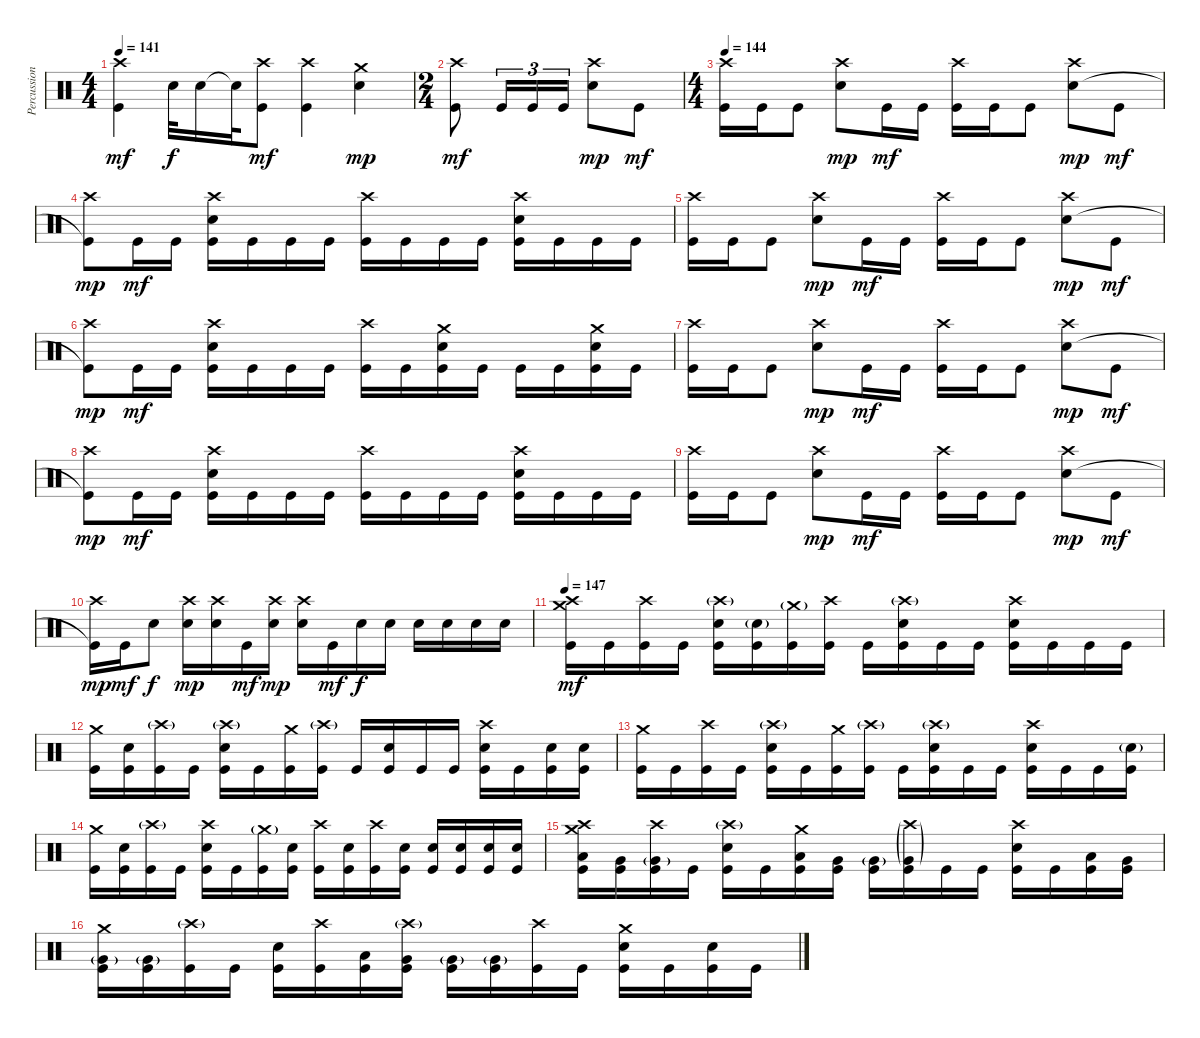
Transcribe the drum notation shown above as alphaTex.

\track ("Percussion" "Percussion") {instrument percussion}
\staff {score}
\articulation defaults
\ts (4 4)
\tempo 141
\clef neutral
\ks c
("Crash high (hit)" "Kick (hit)").4{dy mf} "Electric Snare (hit)".32{dy f} "Electric Snare (hit)".16 "Snare (hit)"{t}.32 ("Crash high (hit)" "Kick (hit)").8{dy mf} ("Crash high (hit)" "Kick (hit)").4 ("Crash medium (hit)" "Electric Snare (hit)").4{dy mp} |
\ts (2 4)
("Crash high (hit)" "Kick (hit)").8{dy mf} "Kick (hit)".16{tu (3 2)} "Kick (hit)".16{tu (3 2)} "Kick (hit)".16{tu (3 2)} ("Crash high (hit)" "Electric Snare (hit)").8{dy mp} "Kick (hit)".8{dy mf} |
\ts (4 4)
\tempo 144
("Crash high (hit)" "Kick (hit)").16 "Kick (hit)".16 "Kick (hit)".8 ("Crash high (hit)" "Electric Snare (hit)").8{dy mp} "Kick (hit)".16{dy mf} "Kick (hit)".16 ("Crash high (hit)" "Kick (hit)").16 "Kick (hit)".16 "Kick (hit)".8 ("Crash high (hit)" "Electric Snare (hit)").8{dy mp} "Kick (hit)".8{dy mf} |
("Crash high (hit)" "Kick (hit)"{t}).8{dy mp} "Kick (hit)".16{dy mf} "Kick (hit)".16 ("Crash high (hit)" "Electric Snare (hit)" "Kick (hit)").16 "Kick (hit)".16 "Kick (hit)".16 "Kick (hit)".16 ("Crash high (hit)" "Kick (hit)").16 "Kick (hit)".16 "Kick (hit)".16 "Kick (hit)".16 ("Crash high (hit)" "Electric Snare (hit)" "Kick (hit)").16 "Kick (hit)".16 "Kick (hit)".16 "Kick (hit)".16 |
("Crash high (hit)" "Kick (hit)").16 "Kick (hit)".16 "Kick (hit)".8 ("Crash high (hit)" "Electric Snare (hit)").8{dy mp} "Kick (hit)".16{dy mf} "Kick (hit)".16 ("Crash high (hit)" "Kick (hit)").16 "Kick (hit)".16 "Kick (hit)".8 ("Crash high (hit)" "Electric Snare (hit)").8{dy mp} "Kick (hit)".8{dy mf} |
("Crash high (hit)" "Kick (hit)"{t}).8{dy mp} "Kick (hit)".16{dy mf} "Kick (hit)".16 ("Crash high (hit)" "Electric Snare (hit)" "Kick (hit)").16 "Kick (hit)".16 "Kick (hit)".16 "Kick (hit)".16 ("Crash high (hit)" "Kick (hit)").16 "Kick (hit)".16 ("Crash medium (hit)" "Electric Snare (hit)" "Kick (hit)").16 "Kick (hit)".16 "Kick (hit)".16 "Kick (hit)".16 ("Crash medium (hit)" "Electric Snare (hit)" "Kick (hit)").16 "Kick (hit)".16 |
("Crash high (hit)" "Kick (hit)").16 "Kick (hit)".16 "Kick (hit)".8 ("Crash high (hit)" "Electric Snare (hit)").8{dy mp} "Kick (hit)".16{dy mf} "Kick (hit)".16 ("Crash high (hit)" "Kick (hit)").16 "Kick (hit)".16 "Kick (hit)".8 ("Crash high (hit)" "Electric Snare (hit)").8{dy mp} "Kick (hit)".8{dy mf} |
("Crash high (hit)" "Kick (hit)"{t}).8{dy mp} "Kick (hit)".16{dy mf} "Kick (hit)".16 ("Crash high (hit)" "Electric Snare (hit)" "Kick (hit)").16 "Kick (hit)".16 "Kick (hit)".16 "Kick (hit)".16 ("Crash high (hit)" "Kick (hit)").16 "Kick (hit)".16 "Kick (hit)".16 "Kick (hit)".16 ("Crash high (hit)" "Electric Snare (hit)" "Kick (hit)").16 "Kick (hit)".16 "Kick (hit)".16 "Kick (hit)".16 |
("Crash high (hit)" "Kick (hit)").16 "Kick (hit)".16 "Kick (hit)".8 ("Crash high (hit)" "Electric Snare (hit)").8{dy mp} "Kick (hit)".16{dy mf} "Kick (hit)".16 ("Crash high (hit)" "Kick (hit)").16 "Kick (hit)".16 "Kick (hit)".8 ("Crash high (hit)" "Electric Snare (hit)").8{dy mp} "Kick (hit)".8{dy mf} |
("Crash high (hit)" "Kick (hit)"{t}).16{dy mp} "Kick (hit)".16{dy mf} "Electric Snare (hit)".8{dy f} ("Crash high (hit)" "Electric Snare (hit)").16{dy mp} ("Crash high (hit)" "Electric Snare (hit)").16 "Kick (hit)".16{dy mf} ("Crash high (hit)" "Electric Snare (hit)").16{dy mp} ("Crash high (hit)" "Electric Snare (hit)").16 "Kick (hit)".16{dy mf} "Electric Snare (hit)".16{dy f} "Electric Snare (hit)".16 "Electric Snare (hit)".16 "Electric Snare (hit)".16 "Electric Snare (hit)".16 "Electric Snare (hit)".16 |
\tempo 147
("Crash medium (hit)" "Crash high (hit)" "Kick (hit)").16{dy mf} "Kick (hit)".16 ("Crash high (hit)" "Kick (hit)").16 "Kick (hit)".16 ("Crash high (hit)"{g} "Electric Snare (hit)" "Kick (hit)").16 ("Electric Snare (hit)"{g} "Kick (hit)").16 ("Crash medium (hit)"{g} "Kick (hit)").16 ("Crash high (hit)" "Kick (hit)").16 "Kick (hit)".16 ("Crash high (hit)"{g} "Electric Snare (hit)" "Kick (hit)").16 "Kick (hit)".16 "Kick (hit)".16 ("Crash high (hit)" "Electric Snare (hit)" "Kick (hit)").16 "Kick (hit)".16 "Kick (hit)".16 "Kick (hit)".16 |
("Crash medium (hit)" "Kick (hit)").16 ("Electric Snare (hit)" "Kick (hit)").16 ("Crash high (hit)"{g} "Kick (hit)").16 "Kick (hit)".16 ("Crash high (hit)"{g} "Electric Snare (hit)" "Kick (hit)").16 "Kick (hit)".16 ("Crash medium (hit)" "Kick (hit)").16 ("Crash high (hit)"{g} "Kick (hit)").16 "Kick (hit)".16 ("Electric Snare (hit)" "Kick (hit)").16 "Kick (hit)".16 "Kick (hit)".16 ("Crash high (hit)" "Electric Snare (hit)" "Kick (hit)").16 "Kick (hit)".16 ("Electric Snare (hit)" "Kick (hit)").16 ("Electric Snare (hit)" "Kick (hit)").16 |
("Crash medium (hit)" "Kick (hit)").16 "Kick (hit)".16 ("Crash high (hit)" "Kick (hit)").16 "Kick (hit)".16 ("Crash high (hit)"{g} "Electric Snare (hit)" "Kick (hit)").16 "Kick (hit)".16 ("Crash medium (hit)" "Kick (hit)").16 ("Crash high (hit)"{g} "Kick (hit)").16 "Kick (hit)".16 ("Crash high (hit)"{g} "Electric Snare (hit)" "Kick (hit)").16 "Kick (hit)".16 "Kick (hit)".16 ("Crash high (hit)" "Electric Snare (hit)" "Kick (hit)").16 "Kick (hit)".16 "Kick (hit)".16 ("Electric Snare (hit)"{g} "Kick (hit)").16 |
("Crash medium (hit)" "Kick (hit)").16 ("Electric Snare (hit)" "Kick (hit)").16 ("Crash high (hit)"{g} "Kick (hit)").16 "Kick (hit)".16 ("Crash high (hit)" "Electric Snare (hit)" "Kick (hit)").16 "Kick (hit)".16 ("Crash medium (hit)"{g} "Kick (hit)").16 ("Electric Snare (hit)" "Kick (hit)").16 ("Crash high (hit)" "Kick (hit)").16 ("Electric Snare (hit)" "Kick (hit)").16 ("Crash high (hit)" "Kick (hit)").16 ("Electric Snare (hit)" "Kick (hit)").16 ("Electric Snare (hit)" "Kick (hit)").16 ("Electric Snare (hit)" "Kick (hit)").16 ("Electric Snare (hit)" "Kick (hit)").16 ("Electric Snare (hit)" "Kick (hit)").16 |
("Crash medium (hit)" "Crash high (hit)" "Low Tom (hit)" "Kick (hit)").16 ("Very Low Tom (hit)" "Kick (hit)").16 ("Crash high (hit)" "Very Low Tom (hit)"{g} "Kick (hit)").16 "Kick (hit)".16 ("Crash high (hit)"{g} "Electric Snare (hit)" "Kick (hit)").16 "Kick (hit)".16 ("Crash medium (hit)" "Low Tom (hit)" "Kick (hit)").16 ("Very Low Tom (hit)" "Kick (hit)").16 ("Very Low Tom (hit)"{g} "Kick (hit)").16 ("Crash high (hit)"{g} "Very Low Tom (hit)"{g} "Kick (hit)").16 "Kick (hit)".16 "Kick (hit)".16 ("Crash high (hit)" "Electric Snare (hit)" "Kick (hit)").16 "Kick (hit)".16 ("Low Tom (hit)" "Kick (hit)").16 ("Very Low Tom (hit)" "Kick (hit)").16 |
("Crash medium (hit)" "Very Low Tom (hit)"{g} "Kick (hit)").16 ("Very Low Tom (hit)"{g} "Kick (hit)").16 ("Crash high (hit)"{g} "Kick (hit)").16 "Kick (hit)".16 ("Electric Snare (hit)" "Kick (hit)").16 ("Crash high (hit)" "Kick (hit)").16 ("Low Tom (hit)" "Kick (hit)").16 ("Crash high (hit)"{g} "Very Low Tom (hit)" "Kick (hit)").16 ("Very Low Tom (hit)"{g} "Kick (hit)").16 ("Very Low Tom (hit)"{g} "Kick (hit)").16 ("Crash high (hit)" "Kick (hit)").16 "Kick (hit)".16 ("Crash medium (hit)" "Electric Snare (hit)" "Kick (hit)").16 "Kick (hit)".16 ("Electric Snare (hit)" "Kick (hit)").16 "Kick (hit)".16
